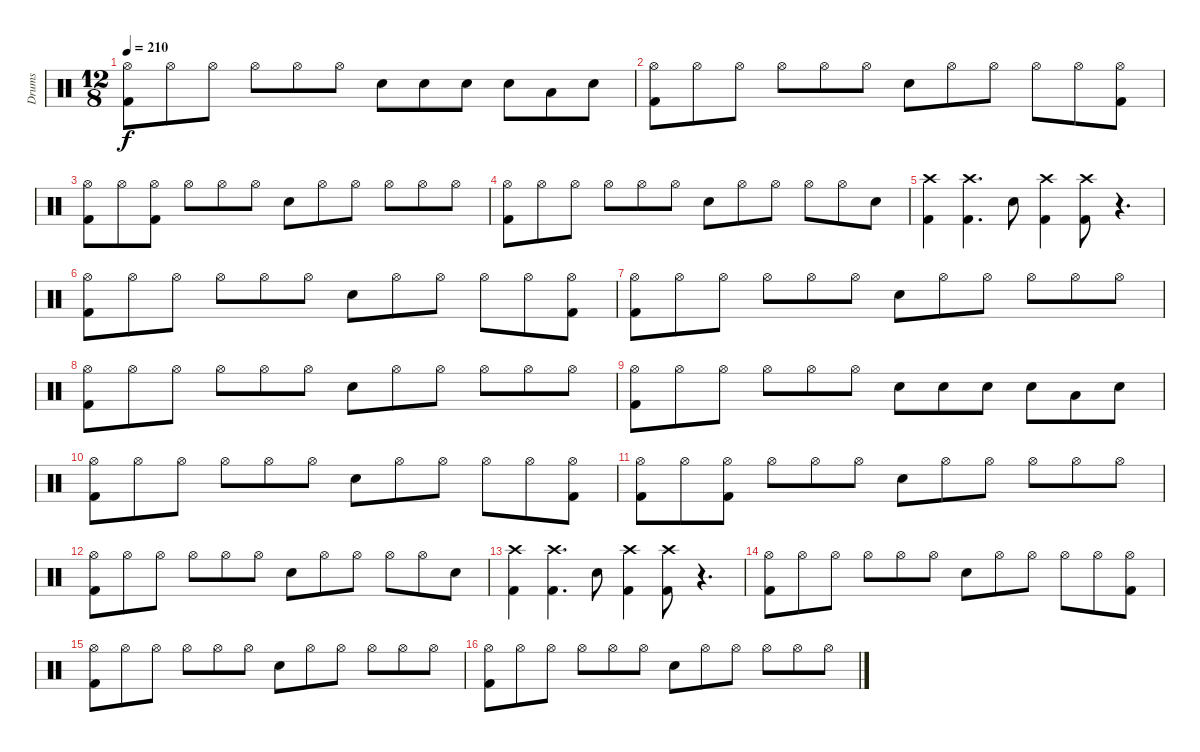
\track ("Drums" "Drums") {instrument percussion}
\staff {score}
\articulation defaults
\ts (12 8)
\tempo 210
\clef neutral
\ks c
("Hi-Hat (open)" "Kick (hit) 2").8{dy f} "Hi-Hat (open)".8 "Hi-Hat (open)".8 "Hi-Hat (open)".8 "Hi-Hat (open)".8 "Hi-Hat (open)".8 "Electric Snare (hit)".8 "Electric Snare (hit)".8 "Electric Snare (hit)".8 "Electric Snare (hit)".8 "Low Tom (hit)".8 "Electric Snare (hit)".8 |
("Hi-Hat (open)" "Kick (hit) 2").8 "Hi-Hat (open)".8 "Hi-Hat (open)".8 "Hi-Hat (open)".8 "Hi-Hat (open)".8 "Hi-Hat (open)".8 "Electric Snare (hit)".8 "Hi-Hat (open)".8 "Hi-Hat (open)".8 "Hi-Hat (open)".8 "Hi-Hat (open)".8 ("Hi-Hat (open)" "Kick (hit) 2").8 |
("Hi-Hat (open)" "Kick (hit) 2").8 "Hi-Hat (open)".8 ("Hi-Hat (open)" "Kick (hit) 2").8 "Hi-Hat (open)".8 "Hi-Hat (open)".8 "Hi-Hat (open)".8 "Electric Snare (hit)".8 "Hi-Hat (open)".8 "Hi-Hat (open)".8 "Hi-Hat (open)".8 "Hi-Hat (open)".8 "Hi-Hat (open)".8 |
("Hi-Hat (open)" "Kick (hit) 2").8 "Hi-Hat (open)".8 "Hi-Hat (open)".8 "Hi-Hat (open)".8 "Hi-Hat (open)".8 "Hi-Hat (open)".8 "Electric Snare (hit)".8 "Hi-Hat (open)".8 "Hi-Hat (open)".8 "Hi-Hat (open)".8 "Hi-Hat (open)".8 "Electric Snare (hit)".8 |
("Crash high (hit)" "Kick (hit) 2").4 ("Crash high (hit)" "Kick (hit) 2").4{d} "Electric Snare (hit)".8 ("Crash high (hit)" "Kick (hit) 2").4 ("Crash high (hit)" "Kick (hit) 2").8 r.4{d} |
("Hi-Hat (open)" "Kick (hit) 2").8 "Hi-Hat (open)".8 "Hi-Hat (open)".8 "Hi-Hat (open)".8 "Hi-Hat (open)".8 "Hi-Hat (open)".8 "Electric Snare (hit)".8 "Hi-Hat (open)".8 "Hi-Hat (open)".8 "Hi-Hat (open)".8 "Hi-Hat (open)".8 ("Hi-Hat (open)" "Kick (hit) 2").8 |
("Hi-Hat (open)" "Kick (hit) 2").8 "Hi-Hat (open)".8 "Hi-Hat (open)".8 "Hi-Hat (open)".8 "Hi-Hat (open)".8 "Hi-Hat (open)".8 "Electric Snare (hit)".8 "Hi-Hat (open)".8 "Hi-Hat (open)".8 "Hi-Hat (open)".8 "Hi-Hat (open)".8 "Hi-Hat (open)".8 |
("Hi-Hat (open)" "Kick (hit) 2").8 "Hi-Hat (open)".8 "Hi-Hat (open)".8 "Hi-Hat (open)".8 "Hi-Hat (open)".8 "Hi-Hat (open)".8 "Electric Snare (hit)".8 "Hi-Hat (open)".8 "Hi-Hat (open)".8 "Hi-Hat (open)".8 "Hi-Hat (open)".8 "Hi-Hat (open)".8 |
("Hi-Hat (open)" "Kick (hit) 2").8 "Hi-Hat (open)".8 "Hi-Hat (open)".8 "Hi-Hat (open)".8 "Hi-Hat (open)".8 "Hi-Hat (open)".8 "Electric Snare (hit)".8 "Electric Snare (hit)".8 "Electric Snare (hit)".8 "Electric Snare (hit)".8 "Low Tom (hit)".8 "Electric Snare (hit)".8 |
("Hi-Hat (open)" "Kick (hit) 2").8 "Hi-Hat (open)".8 "Hi-Hat (open)".8 "Hi-Hat (open)".8 "Hi-Hat (open)".8 "Hi-Hat (open)".8 "Electric Snare (hit)".8 "Hi-Hat (open)".8 "Hi-Hat (open)".8 "Hi-Hat (open)".8 "Hi-Hat (open)".8 ("Hi-Hat (open)" "Kick (hit) 2").8 |
("Hi-Hat (open)" "Kick (hit) 2").8 "Hi-Hat (open)".8 ("Hi-Hat (open)" "Kick (hit) 2").8 "Hi-Hat (open)".8 "Hi-Hat (open)".8 "Hi-Hat (open)".8 "Electric Snare (hit)".8 "Hi-Hat (open)".8 "Hi-Hat (open)".8 "Hi-Hat (open)".8 "Hi-Hat (open)".8 "Hi-Hat (open)".8 |
("Hi-Hat (open)" "Kick (hit) 2").8 "Hi-Hat (open)".8 "Hi-Hat (open)".8 "Hi-Hat (open)".8 "Hi-Hat (open)".8 "Hi-Hat (open)".8 "Electric Snare (hit)".8 "Hi-Hat (open)".8 "Hi-Hat (open)".8 "Hi-Hat (open)".8 "Hi-Hat (open)".8 "Electric Snare (hit)".8 |
("Crash high (hit)" "Kick (hit) 2").4 ("Crash high (hit)" "Kick (hit) 2").4{d} "Electric Snare (hit)".8 ("Crash high (hit)" "Kick (hit) 2").4 ("Crash high (hit)" "Kick (hit) 2").8 r.4{d} |
("Hi-Hat (open)" "Kick (hit) 2").8 "Hi-Hat (open)".8 "Hi-Hat (open)".8 "Hi-Hat (open)".8 "Hi-Hat (open)".8 "Hi-Hat (open)".8 "Electric Snare (hit)".8 "Hi-Hat (open)".8 "Hi-Hat (open)".8 "Hi-Hat (open)".8 "Hi-Hat (open)".8 ("Hi-Hat (open)" "Kick (hit) 2").8 |
("Hi-Hat (open)" "Kick (hit) 2").8 "Hi-Hat (open)".8 "Hi-Hat (open)".8 "Hi-Hat (open)".8 "Hi-Hat (open)".8 "Hi-Hat (open)".8 "Electric Snare (hit)".8 "Hi-Hat (open)".8 "Hi-Hat (open)".8 "Hi-Hat (open)".8 "Hi-Hat (open)".8 "Hi-Hat (open)".8 |
("Hi-Hat (open)" "Kick (hit) 2").8 "Hi-Hat (open)".8 "Hi-Hat (open)".8 "Hi-Hat (open)".8 "Hi-Hat (open)".8 "Hi-Hat (open)".8 "Electric Snare (hit)".8 "Hi-Hat (open)".8 "Hi-Hat (open)".8 "Hi-Hat (open)".8 "Hi-Hat (open)".8 "Hi-Hat (open)".8
